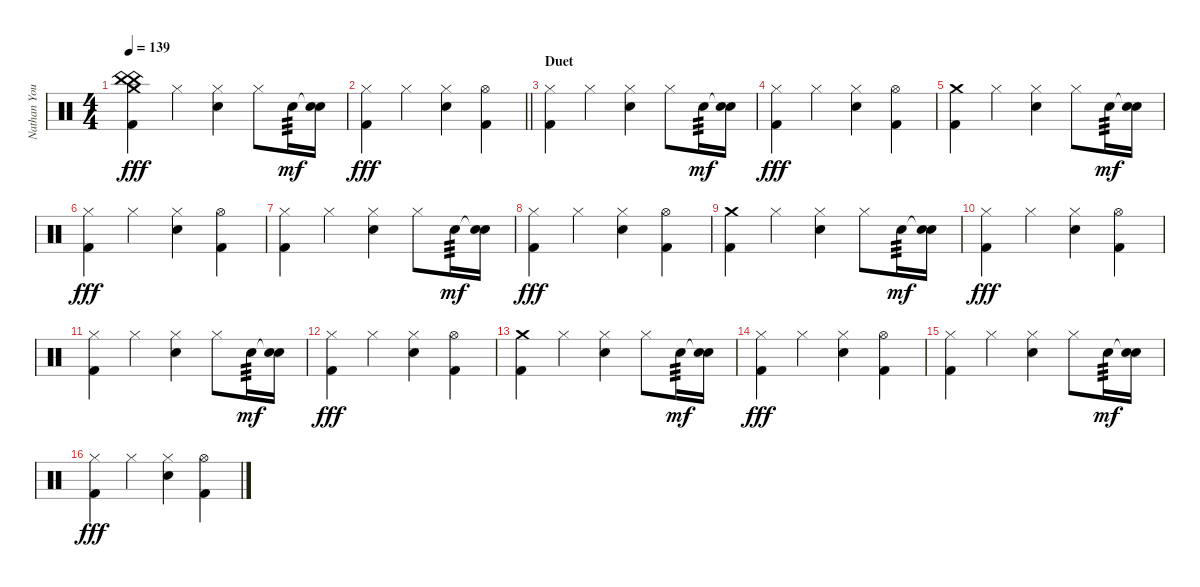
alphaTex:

\track ("Nathan Young" "Nathan You") {instrument percussion}
\staff {score}
\articulation defaults
\ts (4 4)
\tempo 139
\clef neutral
\ks c
("China (hit)" "China (hit)" "Crash medium (hit)" "Kick (hit) 2").4{dy fff} "Hi-Hat (closed)".4 ("Hi-Hat (closed)" "Electric Snare (hit)").4 "Hi-Hat (closed)".8 "Electric Snare (hit)".16{tp 3 dy mf} ("Snare (hit)"{t} "Electric Snare (hit)").16 |
\barLineRight lightlight
("Hi-Hat (closed)" "Kick (hit) 2").4{dy fff} "Hi-Hat (closed)".4 ("Hi-Hat (closed)" "Electric Snare (hit)").4 ("Hi-Hat (open)" "Kick (hit) 2").4 |
\section ("" "Duet")
("Hi-Hat (closed)" "Kick (hit) 2").4 "Hi-Hat (closed)".4 ("Hi-Hat (closed)" "Electric Snare (hit)").4 "Hi-Hat (closed)".8 "Electric Snare (hit)".16{tp 3 dy mf} ("Snare (hit)"{t} "Electric Snare (hit)").16 |
("Hi-Hat (closed)" "Kick (hit) 2").4{dy fff} "Hi-Hat (closed)".4 ("Hi-Hat (closed)" "Electric Snare (hit)").4 ("Hi-Hat (open)" "Kick (hit) 2").4 |
("Crash medium (hit)" "Kick (hit) 2").4 "Hi-Hat (closed)".4 ("Hi-Hat (closed)" "Electric Snare (hit)").4 "Hi-Hat (closed)".8 "Electric Snare (hit)".16{tp 3 dy mf} ("Snare (hit)"{t} "Electric Snare (hit)").16 |
("Hi-Hat (closed)" "Kick (hit) 2").4{dy fff} "Hi-Hat (closed)".4 ("Hi-Hat (closed)" "Electric Snare (hit)").4 ("Hi-Hat (open)" "Kick (hit) 2").4 |
("Hi-Hat (closed)" "Kick (hit) 2").4 "Hi-Hat (closed)".4 ("Hi-Hat (closed)" "Electric Snare (hit)").4 "Hi-Hat (closed)".8 "Electric Snare (hit)".16{tp 3 dy mf} ("Snare (hit)"{t} "Electric Snare (hit)").16 |
("Hi-Hat (closed)" "Kick (hit) 2").4{dy fff} "Hi-Hat (closed)".4 ("Hi-Hat (closed)" "Electric Snare (hit)").4 ("Hi-Hat (open)" "Kick (hit) 2").4 |
("Crash medium (hit)" "Kick (hit) 2").4 "Hi-Hat (closed)".4 ("Hi-Hat (closed)" "Electric Snare (hit)").4 "Hi-Hat (closed)".8 "Electric Snare (hit)".16{tp 3 dy mf} ("Snare (hit)"{t} "Electric Snare (hit)").16 |
("Hi-Hat (closed)" "Kick (hit) 2").4{dy fff} "Hi-Hat (closed)".4 ("Hi-Hat (closed)" "Electric Snare (hit)").4 ("Hi-Hat (open)" "Kick (hit) 2").4 |
("Hi-Hat (closed)" "Kick (hit) 2").4 "Hi-Hat (closed)".4 ("Hi-Hat (closed)" "Electric Snare (hit)").4 "Hi-Hat (closed)".8 "Electric Snare (hit)".16{tp 3 dy mf} ("Snare (hit)"{t} "Electric Snare (hit)").16 |
("Hi-Hat (closed)" "Kick (hit) 2").4{dy fff} "Hi-Hat (closed)".4 ("Hi-Hat (closed)" "Electric Snare (hit)").4 ("Hi-Hat (open)" "Kick (hit) 2").4 |
("Crash medium (hit)" "Kick (hit) 2").4 "Hi-Hat (closed)".4 ("Hi-Hat (closed)" "Electric Snare (hit)").4 "Hi-Hat (closed)".8 "Electric Snare (hit)".16{tp 3 dy mf} ("Snare (hit)"{t} "Electric Snare (hit)").16 |
("Hi-Hat (closed)" "Kick (hit) 2").4{dy fff} "Hi-Hat (closed)".4 ("Hi-Hat (closed)" "Electric Snare (hit)").4 ("Hi-Hat (open)" "Kick (hit) 2").4 |
("Hi-Hat (closed)" "Kick (hit) 2").4 "Hi-Hat (closed)".4 ("Hi-Hat (closed)" "Electric Snare (hit)").4 "Hi-Hat (closed)".8 "Electric Snare (hit)".16{tp 3 dy mf} ("Snare (hit)"{t} "Electric Snare (hit)").16 |
("Hi-Hat (closed)" "Kick (hit) 2").4{dy fff} "Hi-Hat (closed)".4 ("Hi-Hat (closed)" "Electric Snare (hit)").4 ("Hi-Hat (open)" "Kick (hit) 2").4
